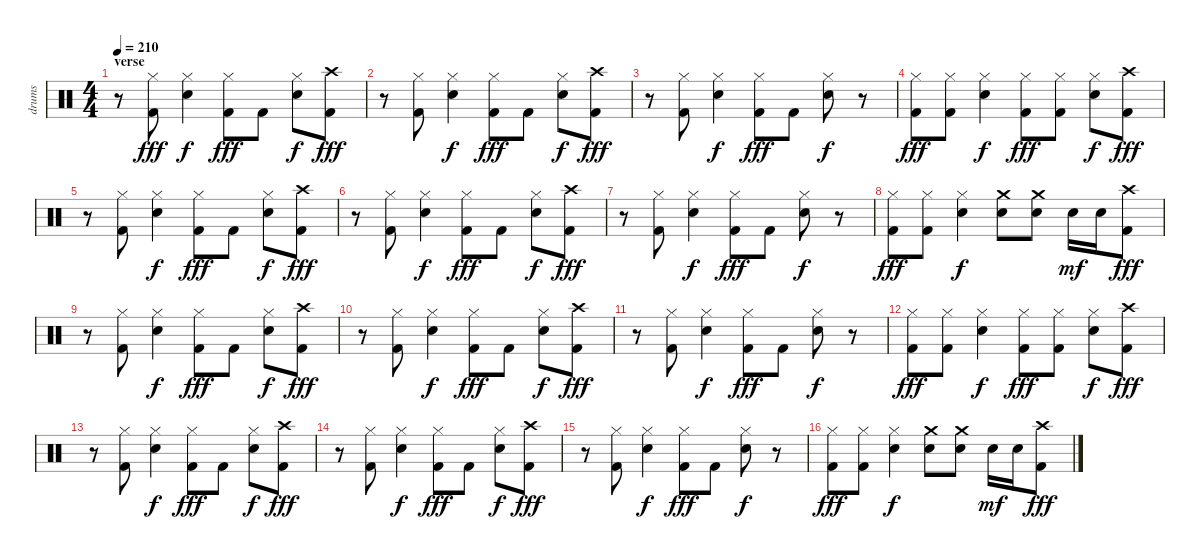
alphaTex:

\track ("drums" "drums") {instrument percussion}
\staff {score}
\articulation defaults
\ts (4 4)
\section ("" "verse")
\tempo 210
\clef neutral
\ks c
r.8{dy fff} ("Hi-Hat (closed)" "Kick (hit) 2").8 ("Hi-Hat (closed)" "Snare (hit) 2").4{dy f} ("Hi-Hat (closed)" "Kick (hit) 2").8{dy fff} "Kick (hit) 2".8 ("Hi-Hat (closed)" "Snare (hit) 2").8{dy f} ("Crash high (hit)" "Kick (hit) 2").8{dy fff} |
r.8 ("Hi-Hat (closed)" "Kick (hit) 2").8 ("Hi-Hat (closed)" "Snare (hit) 2").4{dy f} ("Hi-Hat (closed)" "Kick (hit) 2").8{dy fff} "Kick (hit) 2".8 ("Hi-Hat (closed)" "Snare (hit) 2").8{dy f} ("Crash high (hit)" "Kick (hit) 2").8{dy fff} |
r.8 ("Hi-Hat (closed)" "Kick (hit) 2").8 ("Hi-Hat (closed)" "Snare (hit) 2").4{dy f} ("Hi-Hat (closed)" "Kick (hit) 2").8{dy fff} "Kick (hit) 2".8 ("Hi-Hat (closed)" "Snare (hit) 2").8{dy f} r.8 |
("Hi-Hat (closed)" "Kick (hit) 2").8{dy fff} ("Hi-Hat (closed)" "Kick (hit) 2").8 ("Hi-Hat (closed)" "Snare (hit) 2").4{dy f} ("Hi-Hat (closed)" "Kick (hit) 2").8{dy fff} ("Hi-Hat (closed)" "Kick (hit) 2").8 ("Hi-Hat (closed)" "Snare (hit) 2").8{dy f} ("Crash high (hit)" "Kick (hit) 2").8{dy fff} |
r.8 ("Hi-Hat (closed)" "Kick (hit) 2").8 ("Hi-Hat (closed)" "Snare (hit) 2").4{dy f} ("Hi-Hat (closed)" "Kick (hit) 2").8{dy fff} "Kick (hit) 2".8 ("Hi-Hat (closed)" "Snare (hit) 2").8{dy f} ("Crash high (hit)" "Kick (hit) 2").8{dy fff} |
r.8 ("Hi-Hat (closed)" "Kick (hit) 2").8 ("Hi-Hat (closed)" "Snare (hit) 2").4{dy f} ("Hi-Hat (closed)" "Kick (hit) 2").8{dy fff} "Kick (hit) 2".8 ("Hi-Hat (closed)" "Snare (hit) 2").8{dy f} ("Crash high (hit)" "Kick (hit) 2").8{dy fff} |
r.8 ("Hi-Hat (closed)" "Kick (hit) 2").8 ("Hi-Hat (closed)" "Snare (hit) 2").4{dy f} ("Hi-Hat (closed)" "Kick (hit) 2").8{dy fff} "Kick (hit) 2".8 ("Hi-Hat (closed)" "Snare (hit) 2").8{dy f} r.8 |
("Hi-Hat (closed)" "Kick (hit) 2").8{dy fff} ("Hi-Hat (closed)" "Kick (hit) 2").8 ("Hi-Hat (closed)" "Snare (hit) 2").4{dy f} ("Crash medium (hit)" "Snare (hit) 2").8 ("Crash medium (hit)" "Snare (hit) 2").8 "Snare (hit) 2".16{dy mf} "Snare (hit) 2".16 ("Crash high (hit)" "Kick (hit) 2").8{dy fff} |
r.8 ("Hi-Hat (closed)" "Kick (hit) 2").8 ("Hi-Hat (closed)" "Snare (hit) 2").4{dy f} ("Hi-Hat (closed)" "Kick (hit) 2").8{dy fff} "Kick (hit) 2".8 ("Hi-Hat (closed)" "Snare (hit) 2").8{dy f} ("Crash high (hit)" "Kick (hit) 2").8{dy fff} |
r.8 ("Hi-Hat (closed)" "Kick (hit) 2").8 ("Hi-Hat (closed)" "Snare (hit) 2").4{dy f} ("Hi-Hat (closed)" "Kick (hit) 2").8{dy fff} "Kick (hit) 2".8 ("Hi-Hat (closed)" "Snare (hit) 2").8{dy f} ("Crash high (hit)" "Kick (hit) 2").8{dy fff} |
r.8 ("Hi-Hat (closed)" "Kick (hit) 2").8 ("Hi-Hat (closed)" "Snare (hit) 2").4{dy f} ("Hi-Hat (closed)" "Kick (hit) 2").8{dy fff} "Kick (hit) 2".8 ("Hi-Hat (closed)" "Snare (hit) 2").8{dy f} r.8 |
("Hi-Hat (closed)" "Kick (hit) 2").8{dy fff} ("Hi-Hat (closed)" "Kick (hit) 2").8 ("Hi-Hat (closed)" "Snare (hit) 2").4{dy f} ("Hi-Hat (closed)" "Kick (hit) 2").8{dy fff} ("Hi-Hat (closed)" "Kick (hit) 2").8 ("Hi-Hat (closed)" "Snare (hit) 2").8{dy f} ("Crash high (hit)" "Kick (hit) 2").8{dy fff} |
r.8 ("Hi-Hat (closed)" "Kick (hit) 2").8 ("Hi-Hat (closed)" "Snare (hit) 2").4{dy f} ("Hi-Hat (closed)" "Kick (hit) 2").8{dy fff} "Kick (hit) 2".8 ("Hi-Hat (closed)" "Snare (hit) 2").8{dy f} ("Crash high (hit)" "Kick (hit) 2").8{dy fff} |
r.8 ("Hi-Hat (closed)" "Kick (hit) 2").8 ("Hi-Hat (closed)" "Snare (hit) 2").4{dy f} ("Hi-Hat (closed)" "Kick (hit) 2").8{dy fff} "Kick (hit) 2".8 ("Hi-Hat (closed)" "Snare (hit) 2").8{dy f} ("Crash high (hit)" "Kick (hit) 2").8{dy fff} |
r.8 ("Hi-Hat (closed)" "Kick (hit) 2").8 ("Hi-Hat (closed)" "Snare (hit) 2").4{dy f} ("Hi-Hat (closed)" "Kick (hit) 2").8{dy fff} "Kick (hit) 2".8 ("Hi-Hat (closed)" "Snare (hit) 2").8{dy f} r.8 |
("Hi-Hat (closed)" "Kick (hit) 2").8{dy fff} ("Hi-Hat (closed)" "Kick (hit) 2").8 ("Hi-Hat (closed)" "Snare (hit) 2").4{dy f} ("Crash medium (hit)" "Snare (hit) 2").8 ("Crash medium (hit)" "Snare (hit) 2").8 "Snare (hit) 2".16{dy mf} "Snare (hit) 2".16 ("Crash high (hit)" "Kick (hit) 2").8{dy fff}
